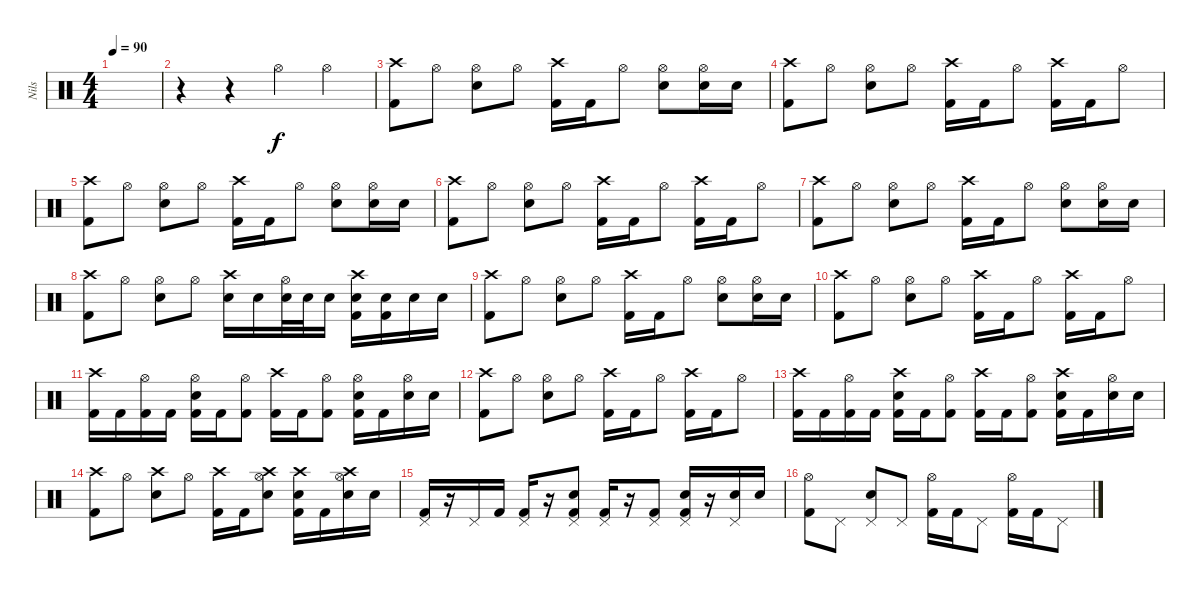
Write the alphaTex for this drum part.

\track ("Nils" "Nils") {instrument percussion}
\staff {score}
\articulation defaults
\ts (4 4)
\tempo 90
\clef neutral
\ks c
|
r.4 r.4 "Hi-Hat (open)".4 "Hi-Hat (open)".4 |
("Crash high (hit)" "Kick (hit) 2").8 "Hi-Hat (open)".8 ("Hi-Hat (open)" "Snare (hit) 2").8 "Hi-Hat (open)".8 ("Crash high (hit)" "Kick (hit) 2").16 "Kick (hit) 2".16 "Hi-Hat (open)".8 ("Hi-Hat (open)" "Snare (hit) 2").8 ("Hi-Hat (open)" "Snare (hit) 2").16 "Snare (hit) 2".16 |
("Crash high (hit)" "Kick (hit) 2").8 "Hi-Hat (open)".8 ("Hi-Hat (open)" "Snare (hit) 2").8 "Hi-Hat (open)".8 ("Crash high (hit)" "Kick (hit) 2").16 "Kick (hit) 2".16 "Hi-Hat (open)".8 ("Crash high (hit)" "Kick (hit) 2").16 "Kick (hit) 2".16 "Hi-Hat (open)".8 |
("Crash high (hit)" "Kick (hit) 2").8 "Hi-Hat (open)".8 ("Hi-Hat (open)" "Snare (hit) 2").8 "Hi-Hat (open)".8 ("Crash high (hit)" "Kick (hit) 2").16 "Kick (hit) 2".16 "Hi-Hat (open)".8 ("Hi-Hat (open)" "Snare (hit) 2").8 ("Hi-Hat (open)" "Snare (hit) 2").16 "Snare (hit) 2".16 |
("Crash high (hit)" "Kick (hit) 2").8 "Hi-Hat (open)".8 ("Hi-Hat (open)" "Snare (hit) 2").8 "Hi-Hat (open)".8 ("Crash high (hit)" "Kick (hit) 2").16 "Kick (hit) 2".16 "Hi-Hat (open)".8 ("Crash high (hit)" "Kick (hit) 2").16 "Kick (hit) 2".16 "Hi-Hat (open)".8 |
("Crash high (hit)" "Kick (hit) 2").8 "Hi-Hat (open)".8 ("Hi-Hat (open)" "Snare (hit) 2").8 "Hi-Hat (open)".8 ("Crash high (hit)" "Kick (hit) 2").16 "Kick (hit) 2".16 "Hi-Hat (open)".8 ("Hi-Hat (open)" "Snare (hit) 2").8 ("Hi-Hat (open)" "Snare (hit) 2").16 "Snare (hit) 2".16 |
("Crash high (hit)" "Kick (hit) 2").8 "Hi-Hat (open)".8 ("Hi-Hat (open)" "Snare (hit) 2").8 "Hi-Hat (open)".8 ("Crash high (hit)" "Snare (hit) 2").16 "Snare (hit) 2".16 ("Hi-Hat (open)" "Snare (hit) 2").32 "Snare (hit) 2".32 "Snare (hit) 2".16 ("Crash high (hit)" "Snare (hit) 2" "Kick (hit) 2").16 ("Snare (hit) 2" "Kick (hit) 2").16 "Snare (hit) 2".16 "Snare (hit) 2".16 |
("Crash high (hit)" "Kick (hit) 2").8 "Hi-Hat (open)".8 ("Hi-Hat (open)" "Snare (hit) 2").8 "Hi-Hat (open)".8 ("Crash high (hit)" "Kick (hit) 2").16 "Kick (hit) 2".16 "Hi-Hat (open)".8 ("Hi-Hat (open)" "Snare (hit) 2").8 ("Hi-Hat (open)" "Snare (hit) 2").16 "Snare (hit) 2".16 |
("Crash high (hit)" "Kick (hit) 2").8 "Hi-Hat (open)".8 ("Hi-Hat (open)" "Snare (hit) 2").8 "Hi-Hat (open)".8 ("Crash high (hit)" "Kick (hit) 2").16 "Kick (hit) 2".16 "Hi-Hat (open)".8 ("Crash high (hit)" "Kick (hit) 2").16 "Kick (hit) 2".16 "Hi-Hat (open)".8 |
("Crash high (hit)" "Kick (hit) 2").16 "Kick (hit) 2".16 ("Hi-Hat (open)" "Kick (hit) 2").16 "Kick (hit) 2".16 ("Hi-Hat (open)" "Snare (hit) 2" "Kick (hit) 2").16 "Kick (hit) 2".16 ("Hi-Hat (open)" "Kick (hit) 2").8 ("Crash high (hit)" "Kick (hit) 2").16 "Kick (hit) 2".16 ("Hi-Hat (open)" "Kick (hit) 2").8 ("Hi-Hat (open)" "Snare (hit) 2" "Kick (hit) 2").16 "Kick (hit) 2".16 ("Hi-Hat (open)" "Snare (hit) 2").16 "Snare (hit) 2".16 |
("Crash high (hit)" "Kick (hit) 2").8 "Hi-Hat (open)".8 ("Hi-Hat (open)" "Snare (hit) 2").8 "Hi-Hat (open)".8 ("Crash high (hit)" "Kick (hit) 2").16 "Kick (hit) 2".16 "Hi-Hat (open)".8 ("Crash high (hit)" "Kick (hit) 2").16 "Kick (hit) 2".16 "Hi-Hat (open)".8 |
("Crash high (hit)" "Kick (hit) 2").16 "Kick (hit) 2".16 ("Hi-Hat (open)" "Kick (hit) 2").16 "Kick (hit) 2".16 ("Crash high (hit)" "Snare (hit) 2" "Kick (hit) 2").16 "Kick (hit) 2".16 ("Hi-Hat (open)" "Kick (hit) 2").8 ("Crash high (hit)" "Kick (hit) 2").16 "Kick (hit) 2".16 ("Hi-Hat (open)" "Kick (hit) 2").8 ("Crash high (hit)" "Snare (hit) 2" "Kick (hit) 2").16 "Kick (hit) 2".16 ("Hi-Hat (open)" "Snare (hit) 2").16 "Snare (hit) 2".16 |
("Crash high (hit)" "Kick (hit) 2").8 "Hi-Hat (open)".8 ("Crash high (hit)" "Snare (hit) 2").8 "Hi-Hat (open)".8 ("Crash high (hit)" "Kick (hit) 2").16 "Kick (hit) 2".16 ("Crash high (hit)" "Hi-Hat (open)" "Snare (hit) 2").8 ("Crash high (hit)" "Snare (hit) 2" "Kick (hit) 2").16 "Kick (hit) 2".16 ("Crash high (hit)" "Hi-Hat (open)" "Snare (hit) 2").16 "Snare (hit) 2".16 |
("Pedal Hi-Hat (hit)" "Kick (hit) 2").16 r.16 "Pedal Hi-Hat (hit)".16 "Kick (hit) 2".16 ("Pedal Hi-Hat (hit)" "Kick (hit) 2").16 r.16 ("Pedal Hi-Hat (hit)" "Snare (hit) 2" "Kick (hit) 2").8 ("Pedal Hi-Hat (hit)" "Kick (hit) 2").16 r.16 ("Pedal Hi-Hat (hit)" "Kick (hit) 2").8 ("Pedal Hi-Hat (hit)" "Snare (hit) 2" "Kick (hit) 2").16 r.16 ("Pedal Hi-Hat (hit)" "Snare (hit) 2").16 "Snare (hit) 2".16 |
("Hi-Hat (open)" "Kick (hit) 2").8 "Pedal Hi-Hat (hit)".8 ("Pedal Hi-Hat (hit)" "Snare (hit) 2").8 "Pedal Hi-Hat (hit)".8 ("Hi-Hat (open)" "Kick (hit) 2").16 "Kick (hit) 2".16 "Pedal Hi-Hat (hit)".8 ("Hi-Hat (open)" "Kick (hit) 2").16 "Kick (hit) 2".16 "Pedal Hi-Hat (hit)".8
